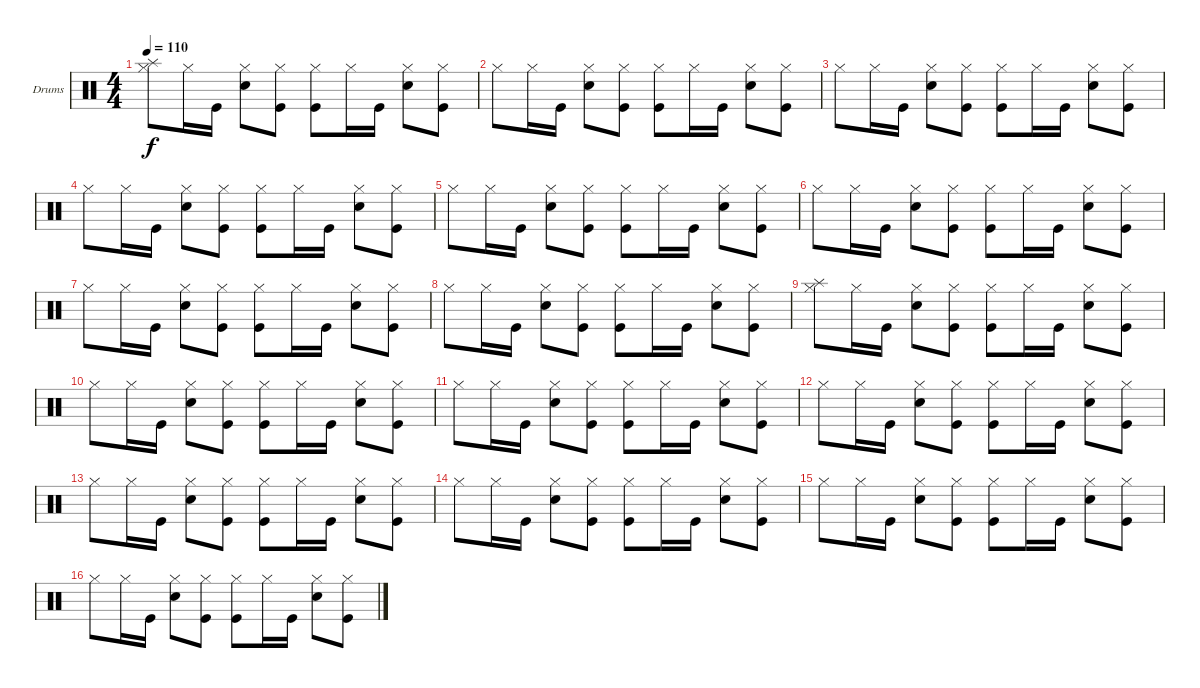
\bracketExtendMode groupsimilarinstruments
\firstSystemTrackNameOrientation horizontal
\otherSystemsTrackNameOrientation horizontal
\track ("Drumkit" "Drums") {instrument percussion}
\staff {score}
\articulation defaults
\ts (4 4)
\tempo 110
\clef neutral
\ks aminor
("Splash (hit)" "Hi-Hat (closed)").8{dy f} "Hi-Hat (closed)".16 "Kick (hit)".16 ("Snare (hit) 2" "Hi-Hat (closed)").8 ("Hi-Hat (closed)" "Kick (hit)").8 ("Hi-Hat (closed)" "Kick (hit)").8 "Hi-Hat (closed)".16 "Kick (hit)".16 ("Snare (hit) 2" "Hi-Hat (closed)").8 ("Hi-Hat (closed)" "Kick (hit)").8 |
\ks c "Hi-Hat (closed)".8 "Hi-Hat (closed)".16 "Kick (hit)".16
("Snare (hit) 2" "Hi-Hat (closed)").8 ("Hi-Hat (closed)" "Kick (hit)").8 ("Hi-Hat (closed)" "Kick (hit)").8 "Hi-Hat (closed)".16 "Kick (hit)".16 ("Snare (hit) 2" "Hi-Hat (closed)").8 ("Hi-Hat (closed)" "Kick (hit)").8 |
"Hi-Hat (closed)".8 "Hi-Hat (closed)".16 "Kick (hit)".16 ("Snare (hit) 2" "Hi-Hat (closed)").8 ("Hi-Hat (closed)" "Kick (hit)").8 ("Hi-Hat (closed)" "Kick (hit)").8 "Hi-Hat (closed)".16 "Kick (hit)".16 ("Snare (hit) 2" "Hi-Hat (closed)").8 ("Hi-Hat (closed)" "Kick (hit)").8 |
"Hi-Hat (closed)".8 "Hi-Hat (closed)".16 "Kick (hit)".16 ("Snare (hit) 2" "Hi-Hat (closed)").8 ("Hi-Hat (closed)" "Kick (hit)").8 ("Hi-Hat (closed)" "Kick (hit)").8 "Hi-Hat (closed)".16 "Kick (hit)".16 ("Snare (hit) 2" "Hi-Hat (closed)").8 ("Hi-Hat (closed)" "Kick (hit)").8 |
"Hi-Hat (closed)".8 "Hi-Hat (closed)".16 "Kick (hit)".16 ("Snare (hit) 2" "Hi-Hat (closed)").8 ("Hi-Hat (closed)" "Kick (hit)").8 ("Hi-Hat (closed)" "Kick (hit)").8 "Hi-Hat (closed)".16 "Kick (hit)".16 ("Snare (hit) 2" "Hi-Hat (closed)").8 ("Hi-Hat (closed)" "Kick (hit)").8 |
"Hi-Hat (closed)".8 "Hi-Hat (closed)".16 "Kick (hit)".16 ("Snare (hit) 2" "Hi-Hat (closed)").8 ("Hi-Hat (closed)" "Kick (hit)").8 ("Hi-Hat (closed)" "Kick (hit)").8 "Hi-Hat (closed)".16 "Kick (hit)".16 ("Snare (hit) 2" "Hi-Hat (closed)").8 ("Hi-Hat (closed)" "Kick (hit)").8 |
"Hi-Hat (closed)".8 "Hi-Hat (closed)".16 "Kick (hit)".16 ("Snare (hit) 2" "Hi-Hat (closed)").8 ("Hi-Hat (closed)" "Kick (hit)").8 ("Hi-Hat (closed)" "Kick (hit)").8 "Hi-Hat (closed)".16 "Kick (hit)".16 ("Snare (hit) 2" "Hi-Hat (closed)").8 ("Hi-Hat (closed)" "Kick (hit)").8 |
"Hi-Hat (closed)".8 "Hi-Hat (closed)".16 "Kick (hit)".16 ("Snare (hit) 2" "Hi-Hat (closed)").8 ("Hi-Hat (closed)" "Kick (hit)").8 ("Hi-Hat (closed)" "Kick (hit)").8 "Hi-Hat (closed)".16 "Kick (hit)".16 ("Snare (hit) 2" "Hi-Hat (closed)").8 ("Hi-Hat (closed)" "Kick (hit)").8 |
("Splash (hit)" "Hi-Hat (closed)").8 "Hi-Hat (closed)".16 "Kick (hit)".16 ("Snare (hit) 2" "Hi-Hat (closed)").8 ("Hi-Hat (closed)" "Kick (hit)").8 ("Hi-Hat (closed)" "Kick (hit)").8 "Hi-Hat (closed)".16 "Kick (hit)".16 ("Snare (hit) 2" "Hi-Hat (closed)").8 ("Hi-Hat (closed)" "Kick (hit)").8 |
"Hi-Hat (closed)".8 "Hi-Hat (closed)".16 "Kick (hit)".16 ("Snare (hit) 2" "Hi-Hat (closed)").8 ("Hi-Hat (closed)" "Kick (hit)").8 ("Hi-Hat (closed)" "Kick (hit)").8 "Hi-Hat (closed)".16 "Kick (hit)".16 ("Snare (hit) 2" "Hi-Hat (closed)").8 ("Hi-Hat (closed)" "Kick (hit)").8 |
"Hi-Hat (closed)".8 "Hi-Hat (closed)".16 "Kick (hit)".16 ("Snare (hit) 2" "Hi-Hat (closed)").8 ("Hi-Hat (closed)" "Kick (hit)").8 ("Hi-Hat (closed)" "Kick (hit)").8 "Hi-Hat (closed)".16 "Kick (hit)".16 ("Snare (hit) 2" "Hi-Hat (closed)").8 ("Hi-Hat (closed)" "Kick (hit)").8 |
"Hi-Hat (closed)".8 "Hi-Hat (closed)".16 "Kick (hit)".16 ("Snare (hit) 2" "Hi-Hat (closed)").8 ("Hi-Hat (closed)" "Kick (hit)").8 ("Hi-Hat (closed)" "Kick (hit)").8 "Hi-Hat (closed)".16 "Kick (hit)".16 ("Snare (hit) 2" "Hi-Hat (closed)").8 ("Hi-Hat (closed)" "Kick (hit)").8 |
"Hi-Hat (closed)".8 "Hi-Hat (closed)".16 "Kick (hit)".16 ("Snare (hit) 2" "Hi-Hat (closed)").8 ("Hi-Hat (closed)" "Kick (hit)").8 ("Hi-Hat (closed)" "Kick (hit)").8 "Hi-Hat (closed)".16 "Kick (hit)".16 ("Snare (hit) 2" "Hi-Hat (closed)").8 ("Hi-Hat (closed)" "Kick (hit)").8 |
"Hi-Hat (closed)".8 "Hi-Hat (closed)".16 "Kick (hit)".16 ("Snare (hit) 2" "Hi-Hat (closed)").8 ("Hi-Hat (closed)" "Kick (hit)").8 ("Hi-Hat (closed)" "Kick (hit)").8 "Hi-Hat (closed)".16 "Kick (hit)".16 ("Snare (hit) 2" "Hi-Hat (closed)").8 ("Hi-Hat (closed)" "Kick (hit)").8 |
"Hi-Hat (closed)".8 "Hi-Hat (closed)".16 "Kick (hit)".16 ("Snare (hit) 2" "Hi-Hat (closed)").8 ("Hi-Hat (closed)" "Kick (hit)").8 ("Hi-Hat (closed)" "Kick (hit)").8 "Hi-Hat (closed)".16 "Kick (hit)".16 ("Snare (hit) 2" "Hi-Hat (closed)").8 ("Hi-Hat (closed)" "Kick (hit)").8 |
"Hi-Hat (closed)".8 "Hi-Hat (closed)".16 "Kick (hit)".16 ("Snare (hit) 2" "Hi-Hat (closed)").8 ("Hi-Hat (closed)" "Kick (hit)").8 ("Hi-Hat (closed)" "Kick (hit)").8 "Hi-Hat (closed)".16 "Kick (hit)".16 ("Snare (hit) 2" "Hi-Hat (closed)").8 ("Hi-Hat (closed)" "Kick (hit)").8
